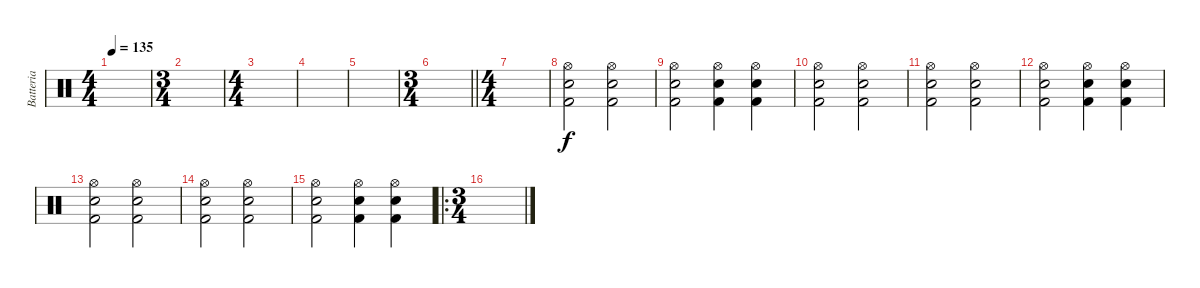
\track ("Batteria" "Batteria") {instrument percussion}
\staff {score}
\articulation defaults
\ts (4 4)
\tempo 135
\clef neutral
\ks c
|
\ts (3 4)
|
\ts (4 4)
|
|
|
\ts (3 4)
\barLineRight lightlight
|
\ts (4 4)
|
("Kick (hit) 2" "Snare (hit) 2" "Hi-Hat (open)").2 ("Kick (hit) 2" "Snare (hit) 2" "Hi-Hat (open)").2 |
("Kick (hit) 2" "Snare (hit) 2" "Hi-Hat (open)").2 ("Kick (hit) 2" "Snare (hit) 2" "Hi-Hat (open)").4 ("Kick (hit) 2" "Snare (hit) 2" "Hi-Hat (open)").4 |
("Kick (hit) 2" "Snare (hit) 2" "Hi-Hat (open)").2 ("Kick (hit) 2" "Snare (hit) 2" "Hi-Hat (open)").2 |
("Kick (hit) 2" "Snare (hit) 2" "Hi-Hat (open)").2 ("Kick (hit) 2" "Snare (hit) 2" "Hi-Hat (open)").2 |
("Kick (hit) 2" "Snare (hit) 2" "Hi-Hat (open)").2 ("Kick (hit) 2" "Snare (hit) 2" "Hi-Hat (open)").4 ("Kick (hit) 2" "Snare (hit) 2" "Hi-Hat (open)").4 |
("Kick (hit) 2" "Snare (hit) 2" "Hi-Hat (open)").2 ("Kick (hit) 2" "Snare (hit) 2" "Hi-Hat (open)").2 |
("Kick (hit) 2" "Snare (hit) 2" "Hi-Hat (open)").2 ("Kick (hit) 2" "Snare (hit) 2" "Hi-Hat (open)").2 |
("Kick (hit) 2" "Snare (hit) 2" "Hi-Hat (open)").2 ("Kick (hit) 2" "Snare (hit) 2" "Hi-Hat (open)").4 ("Kick (hit) 2" "Snare (hit) 2" "Hi-Hat (open)").4 |
\ro
\ts (3 4)
